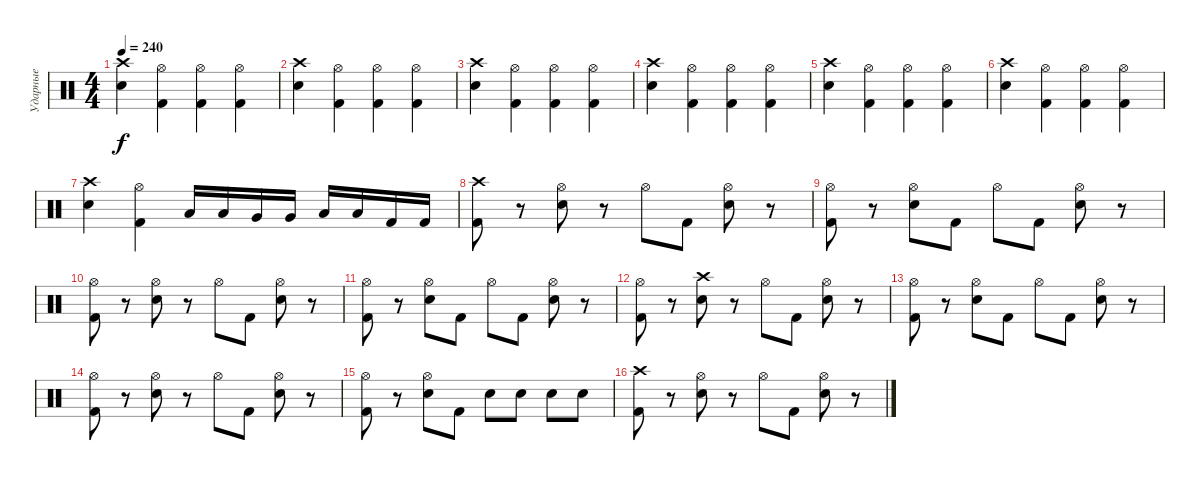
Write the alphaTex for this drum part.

\track ("Ударные" "Ударные") {instrument percussion}
\staff {score}
\articulation defaults
\ts (4 4)
\tempo 240
\clef neutral
\ks c
("Crash high (hit)" "Electric Snare (hit)").4{dy f} ("Hi-Hat (open)" "Kick (hit) 2").4 ("Hi-Hat (open)" "Kick (hit) 2").4 ("Hi-Hat (open)" "Kick (hit) 2").4 |
("Crash high (hit)" "Electric Snare (hit)").4 ("Hi-Hat (open)" "Kick (hit) 2").4 ("Hi-Hat (open)" "Kick (hit) 2").4 ("Hi-Hat (open)" "Kick (hit) 2").4 |
("Crash high (hit)" "Electric Snare (hit)").4 ("Hi-Hat (open)" "Kick (hit) 2").4 ("Hi-Hat (open)" "Kick (hit) 2").4 ("Hi-Hat (open)" "Kick (hit) 2").4 |
("Crash high (hit)" "Electric Snare (hit)").4 ("Hi-Hat (open)" "Kick (hit) 2").4 ("Hi-Hat (open)" "Kick (hit) 2").4 ("Hi-Hat (open)" "Kick (hit) 2").4 |
("Crash high (hit)" "Electric Snare (hit)").4 ("Hi-Hat (open)" "Kick (hit) 2").4 ("Hi-Hat (open)" "Kick (hit) 2").4 ("Hi-Hat (open)" "Kick (hit) 2").4 |
("Crash high (hit)" "Electric Snare (hit)").4 ("Hi-Hat (open)" "Kick (hit) 2").4 ("Hi-Hat (open)" "Kick (hit) 2").4 ("Hi-Hat (open)" "Kick (hit) 2").4 |
("Crash high (hit)" "Electric Snare (hit)").4 ("Hi-Hat (open)" "Kick (hit) 2").4 "Low Tom (hit)".16 "Low Tom (hit)".16 "Very Low Tom (hit)".16 "Very Low Tom (hit)".16 "Low Floor Tom (hit)".16 "Low Floor Tom (hit)".16 "Kick (hit) 2".16 "Kick (hit) 2".16 |
("Crash high (hit)" "Kick (hit) 2").8 r.8 ("Hi-Hat (open)" "Electric Snare (hit)").8 r.8 "Hi-Hat (open)".8 "Kick (hit) 2".8 ("Hi-Hat (open)" "Electric Snare (hit)").8 r.8 |
("Hi-Hat (open)" "Kick (hit) 2").8 r.8 ("Hi-Hat (open)" "Electric Snare (hit)").8 "Kick (hit) 2".8 "Hi-Hat (open)".8 "Kick (hit) 2".8 ("Hi-Hat (open)" "Electric Snare (hit)").8 r.8 |
("Hi-Hat (open)" "Kick (hit) 2").8 r.8 ("Hi-Hat (open)" "Electric Snare (hit)").8 r.8 "Hi-Hat (open)".8 "Kick (hit) 2".8 ("Hi-Hat (open)" "Electric Snare (hit)").8 r.8 |
("Hi-Hat (open)" "Kick (hit) 2").8 r.8 ("Hi-Hat (open)" "Electric Snare (hit)").8 "Kick (hit) 2".8 "Hi-Hat (open)".8 "Kick (hit) 2".8 ("Hi-Hat (open)" "Electric Snare (hit)").8 r.8 |
("Hi-Hat (open)" "Kick (hit) 2").8 r.8 ("Crash high (hit)" "Electric Snare (hit)").8 r.8 "Hi-Hat (open)".8 "Kick (hit) 2".8 ("Hi-Hat (open)" "Electric Snare (hit)").8 r.8 |
("Hi-Hat (open)" "Kick (hit) 2").8 r.8 ("Hi-Hat (open)" "Electric Snare (hit)").8 "Kick (hit) 2".8 "Hi-Hat (open)".8 "Kick (hit) 2".8 ("Hi-Hat (open)" "Electric Snare (hit)").8 r.8 |
("Hi-Hat (open)" "Kick (hit) 2").8 r.8 ("Hi-Hat (open)" "Electric Snare (hit)").8 r.8 "Hi-Hat (open)".8 "Kick (hit) 2".8 ("Hi-Hat (open)" "Electric Snare (hit)").8 r.8 |
("Hi-Hat (open)" "Kick (hit) 2").8 r.8 ("Hi-Hat (open)" "Electric Snare (hit)").8 "Kick (hit) 2".8 "Electric Snare (hit)".8 "Electric Snare (hit)".8 "Electric Snare (hit)".8 "Electric Snare (hit)".8 |
("Crash high (hit)" "Kick (hit) 2").8 r.8 ("Hi-Hat (open)" "Electric Snare (hit)").8 r.8 "Hi-Hat (open)".8 "Kick (hit) 2".8 ("Hi-Hat (open)" "Electric Snare (hit)").8 r.8
